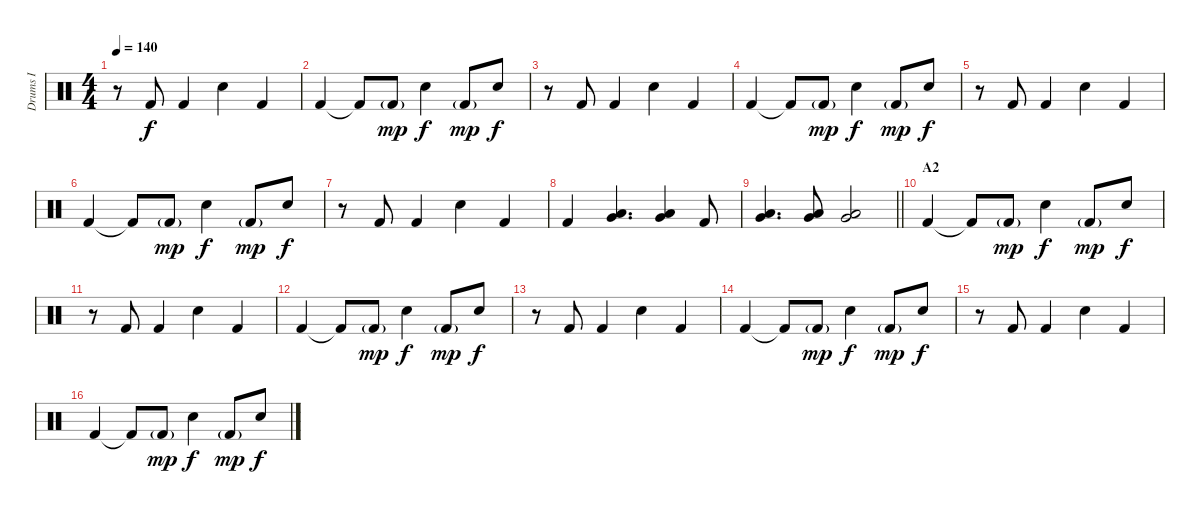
\track ("Drums I" "Drums I") {instrument percussion}
\staff {score}
\articulation defaults
\ts (4 4)
\tempo 140
\clef neutral
\ks c
r.8{dy f} "Kick (hit) 2".8 "Kick (hit) 2".4 "Electric Snare (hit)".4 "Kick (hit) 2".4 |
"Kick (hit) 2".4 "Kick (hit) 2"{t}.8 "Kick (hit) 2"{g}.8{dy mp} "Electric Snare (hit)".4{dy f} "Kick (hit) 2"{g}.8{dy mp} "Electric Snare (hit)".8{dy f} |
r.8 "Kick (hit) 2".8 "Kick (hit) 2".4 "Electric Snare (hit)".4 "Kick (hit) 2".4 |
"Kick (hit) 2".4 "Kick (hit) 2"{t}.8 "Kick (hit) 2"{g}.8{dy mp} "Electric Snare (hit)".4{dy f} "Kick (hit) 2"{g}.8{dy mp} "Electric Snare (hit)".8{dy f} |
r.8 "Kick (hit) 2".8 "Kick (hit) 2".4 "Electric Snare (hit)".4 "Kick (hit) 2".4 |
"Kick (hit) 2".4 "Kick (hit) 2"{t}.8 "Kick (hit) 2"{g}.8{dy mp} "Electric Snare (hit)".4{dy f} "Kick (hit) 2"{g}.8{dy mp} "Electric Snare (hit)".8{dy f} |
r.8 "Kick (hit) 2".8 "Kick (hit) 2".4 "Electric Snare (hit)".4 "Kick (hit) 2".4 |
"Kick (hit) 2".4 ("Low Tom (hit)" "Very Low Tom (hit)").4{d} ("Very Low Tom (hit)" "Low Floor Tom (hit)").4 "Kick (hit) 2".8 |
\barLineRight lightlight
("Low Tom (hit)" "Very Low Tom (hit)").4{d} ("Low Tom (hit)" "Very Low Tom (hit)").8 ("Low Tom (hit)" "Very Low Tom (hit)").2 |
\section ("" "A2")
"Kick (hit) 2".4 "Kick (hit) 2"{t}.8 "Kick (hit) 2"{g}.8{dy mp} "Electric Snare (hit)".4{dy f} "Kick (hit) 2"{g}.8{dy mp} "Electric Snare (hit)".8{dy f} |
r.8 "Kick (hit) 2".8 "Kick (hit) 2".4 "Electric Snare (hit)".4 "Kick (hit) 2".4 |
"Kick (hit) 2".4 "Kick (hit) 2"{t}.8 "Kick (hit) 2"{g}.8{dy mp} "Electric Snare (hit)".4{dy f} "Kick (hit) 2"{g}.8{dy mp} "Electric Snare (hit)".8{dy f} |
r.8 "Kick (hit) 2".8 "Kick (hit) 2".4 "Electric Snare (hit)".4 "Kick (hit) 2".4 |
"Kick (hit) 2".4 "Kick (hit) 2"{t}.8 "Kick (hit) 2"{g}.8{dy mp} "Electric Snare (hit)".4{dy f} "Kick (hit) 2"{g}.8{dy mp} "Electric Snare (hit)".8{dy f} |
r.8 "Kick (hit) 2".8 "Kick (hit) 2".4 "Electric Snare (hit)".4 "Kick (hit) 2".4 |
"Kick (hit) 2".4 "Kick (hit) 2"{t}.8 "Kick (hit) 2"{g}.8{dy mp} "Electric Snare (hit)".4{dy f} "Kick (hit) 2"{g}.8{dy mp} "Electric Snare (hit)".8{dy f}
